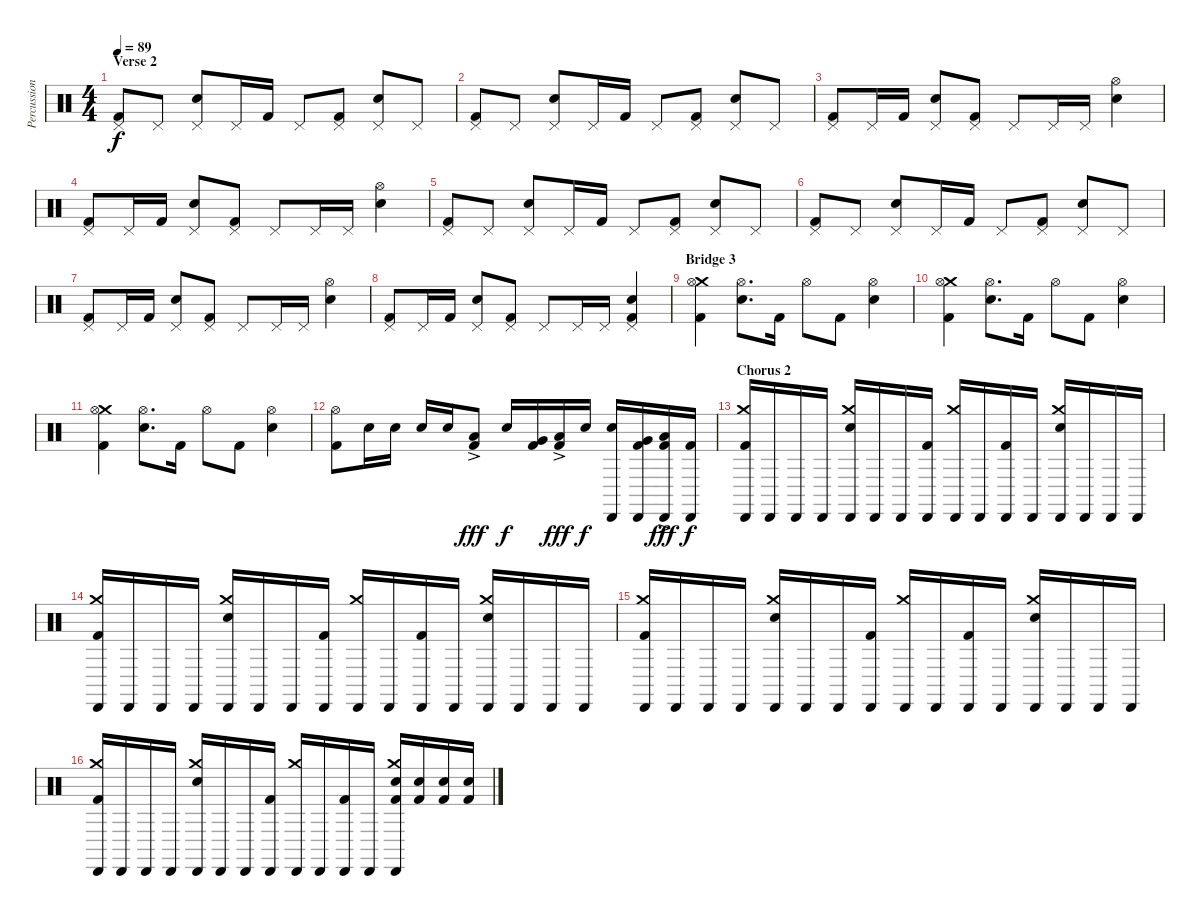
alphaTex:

\track ("Percussions" "Percussion") {instrument percussion}
\staff {score}
\articulation defaults
\ts (4 4)
\section ("" "Verse 2")
\tempo 89
\clef neutral
\ks c
("Pedal Hi-Hat (hit)" "Kick (hit) 2").8{dy f} "Pedal Hi-Hat (hit)".8 ("Pedal Hi-Hat (hit)" "Electric Snare (hit)").8 "Pedal Hi-Hat (hit)".16 "Kick (hit) 2".16 "Pedal Hi-Hat (hit)".8 ("Pedal Hi-Hat (hit)" "Kick (hit) 2").8 ("Pedal Hi-Hat (hit)" "Electric Snare (hit)").8 "Pedal Hi-Hat (hit)".8 |
("Pedal Hi-Hat (hit)" "Kick (hit) 2").8 "Pedal Hi-Hat (hit)".8 ("Pedal Hi-Hat (hit)" "Electric Snare (hit)").8 "Pedal Hi-Hat (hit)".16 "Kick (hit) 2".16 "Pedal Hi-Hat (hit)".8 ("Pedal Hi-Hat (hit)" "Kick (hit) 2").8 ("Pedal Hi-Hat (hit)" "Electric Snare (hit)").8 "Pedal Hi-Hat (hit)".8 |
("Pedal Hi-Hat (hit)" "Kick (hit) 2").8 "Pedal Hi-Hat (hit)".16 "Kick (hit) 2".16 ("Pedal Hi-Hat (hit)" "Electric Snare (hit)").8 ("Pedal Hi-Hat (hit)" "Kick (hit) 2").8 "Pedal Hi-Hat (hit)".8 "Pedal Hi-Hat (hit)".16 "Pedal Hi-Hat (hit)".16 ("Hi-Hat (open)" "Electric Snare (hit)").4 |
("Pedal Hi-Hat (hit)" "Kick (hit) 2").8 "Pedal Hi-Hat (hit)".16 "Kick (hit) 2".16 ("Pedal Hi-Hat (hit)" "Electric Snare (hit)").8 ("Pedal Hi-Hat (hit)" "Kick (hit) 2").8 "Pedal Hi-Hat (hit)".8 "Pedal Hi-Hat (hit)".16 "Pedal Hi-Hat (hit)".16 ("Hi-Hat (open)" "Electric Snare (hit)").4 |
("Pedal Hi-Hat (hit)" "Kick (hit) 2").8 "Pedal Hi-Hat (hit)".8 ("Pedal Hi-Hat (hit)" "Electric Snare (hit)").8 "Pedal Hi-Hat (hit)".16 "Kick (hit) 2".16 "Pedal Hi-Hat (hit)".8 ("Pedal Hi-Hat (hit)" "Kick (hit) 2").8 ("Pedal Hi-Hat (hit)" "Electric Snare (hit)").8 "Pedal Hi-Hat (hit)".8 |
("Pedal Hi-Hat (hit)" "Kick (hit) 2").8 "Pedal Hi-Hat (hit)".8 ("Pedal Hi-Hat (hit)" "Electric Snare (hit)").8 "Pedal Hi-Hat (hit)".16 "Kick (hit) 2".16 "Pedal Hi-Hat (hit)".8 ("Pedal Hi-Hat (hit)" "Kick (hit) 2").8 ("Pedal Hi-Hat (hit)" "Electric Snare (hit)").8 "Pedal Hi-Hat (hit)".8 |
("Pedal Hi-Hat (hit)" "Kick (hit) 2").8 "Pedal Hi-Hat (hit)".16 "Kick (hit) 2".16 ("Pedal Hi-Hat (hit)" "Electric Snare (hit)").8 ("Pedal Hi-Hat (hit)" "Kick (hit) 2").8 "Pedal Hi-Hat (hit)".8 "Pedal Hi-Hat (hit)".16 "Pedal Hi-Hat (hit)".16 ("Hi-Hat (open)" "Electric Snare (hit)").4 |
("Pedal Hi-Hat (hit)" "Kick (hit) 2").8 "Pedal Hi-Hat (hit)".16 "Kick (hit) 2".16 ("Pedal Hi-Hat (hit)" "Electric Snare (hit)").8 ("Pedal Hi-Hat (hit)" "Kick (hit) 2").8 "Pedal Hi-Hat (hit)".8 "Pedal Hi-Hat (hit)".16 "Pedal Hi-Hat (hit)".16 ("Pedal Hi-Hat (hit)" "Electric Snare (hit)" "Kick (hit) 2").4 |
\section ("" "Bridge 3")
("Crash medium (hit)" "Hi-Hat (open)" "Kick (hit) 2").4 ("Hi-Hat (open)" "Electric Snare (hit)").8{d} "Kick (hit) 2".16 "Hi-Hat (open)".8 "Kick (hit) 2".8 ("Hi-Hat (open)" "Electric Snare (hit)").4 |
("Crash medium (hit)" "Hi-Hat (open)" "Kick (hit) 2").4 ("Hi-Hat (open)" "Electric Snare (hit)").8{d} "Kick (hit) 2".16 "Hi-Hat (open)".8 "Kick (hit) 2".8 ("Hi-Hat (open)" "Electric Snare (hit)").4 |
("Crash medium (hit)" "Hi-Hat (open)" "Kick (hit) 2").4 ("Hi-Hat (open)" "Electric Snare (hit)").8{d} "Kick (hit) 2".16 "Hi-Hat (open)".8 "Kick (hit) 2".8 ("Hi-Hat (open)" "Electric Snare (hit)").4 |
("Hi-Hat (open)" "Kick (hit) 2").8 "Electric Snare (hit)".16 "Electric Snare (hit)".16 "Electric Snare (hit)".16 "Electric Snare (hit)".16 ("Low Floor Tom (hit)"{ac} "Kick (hit) 2").8{dy fff} "Electric Snare (hit)".16{dy f} ("Very Low Tom (hit)" "Kick (hit) 2").16 ("Low Floor Tom (hit)"{ac} "Kick (hit) 2").16{dy fff} "Electric Snare (hit)".16{dy f} ("Cabasa (hit)" "Electric Snare (hit)").16 ("Cabasa (hit)" "Very Low Tom (hit)" "Kick (hit) 2").16 ("Cabasa (hit)" "Low Floor Tom (hit)"{ac} "Kick (hit) 2").16{dy fff} ("Cabasa (hit)" "Kick (hit) 2").16{dy f} |
\section ("" "Chorus 2")
("Crash medium (hit)" "Cabasa (hit)" "Kick (hit) 2").16 "Cabasa (hit)".16 "Cabasa (hit)".16 "Cabasa (hit)".16 ("Crash medium (hit)" "Cabasa (hit)" "Electric Snare (hit)").16 "Cabasa (hit)".16 "Cabasa (hit)".16 ("Cabasa (hit)" "Kick (hit) 2").16 ("Crash medium (hit)" "Cabasa (hit)").16 "Cabasa (hit)".16 ("Cabasa (hit)" "Kick (hit) 2").16 "Cabasa (hit)".16 ("Crash medium (hit)" "Cabasa (hit)" "Electric Snare (hit)").16 "Cabasa (hit)".16 "Cabasa (hit)".16 "Cabasa (hit)".16 |
("Crash medium (hit)" "Cabasa (hit)" "Kick (hit) 2").16 "Cabasa (hit)".16 "Cabasa (hit)".16 "Cabasa (hit)".16 ("Crash medium (hit)" "Cabasa (hit)" "Electric Snare (hit)").16 "Cabasa (hit)".16 "Cabasa (hit)".16 ("Cabasa (hit)" "Kick (hit) 2").16 ("Crash medium (hit)" "Cabasa (hit)").16 "Cabasa (hit)".16 ("Cabasa (hit)" "Kick (hit) 2").16 "Cabasa (hit)".16 ("Crash medium (hit)" "Cabasa (hit)" "Electric Snare (hit)").16 "Cabasa (hit)".16 "Cabasa (hit)".16 "Cabasa (hit)".16 |
("Crash medium (hit)" "Cabasa (hit)" "Kick (hit) 2").16 "Cabasa (hit)".16 "Cabasa (hit)".16 "Cabasa (hit)".16 ("Crash medium (hit)" "Cabasa (hit)" "Electric Snare (hit)").16 "Cabasa (hit)".16 "Cabasa (hit)".16 ("Cabasa (hit)" "Kick (hit) 2").16 ("Crash medium (hit)" "Cabasa (hit)").16 "Cabasa (hit)".16 ("Cabasa (hit)" "Kick (hit) 2").16 "Cabasa (hit)".16 ("Crash medium (hit)" "Cabasa (hit)" "Electric Snare (hit)").16 "Cabasa (hit)".16 "Cabasa (hit)".16 "Cabasa (hit)".16 |
("Crash medium (hit)" "Cabasa (hit)" "Kick (hit) 2").16 "Cabasa (hit)".16 "Cabasa (hit)".16 "Cabasa (hit)".16 ("Crash medium (hit)" "Cabasa (hit)" "Electric Snare (hit)").16 "Cabasa (hit)".16 "Cabasa (hit)".16 ("Cabasa (hit)" "Kick (hit) 2").16 ("Crash medium (hit)" "Cabasa (hit)").16 "Cabasa (hit)".16 ("Cabasa (hit)" "Kick (hit) 2").16 "Cabasa (hit)".16 ("Crash medium (hit)" "Cabasa (hit)" "Electric Snare (hit)" "Kick (hit) 2").16 ("Electric Snare (hit)" "Kick (hit) 2").16 ("Electric Snare (hit)" "Kick (hit) 2").16 ("Electric Snare (hit)" "Kick (hit) 2").16
